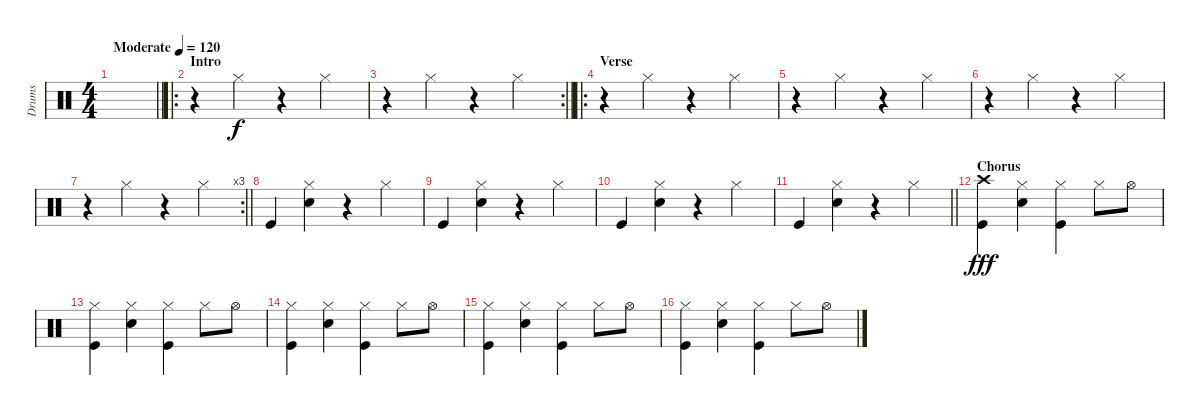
\track ("Drums" "Drums") {instrument percussion}
\staff {score}
\articulation defaults
\ts (4 4)
\tempo (120 "Moderate")
\clef neutral
\barLineRight lightlight
\ks c
|
\ro
\section ("" "Intro")
r.4 "Hi-Hat (closed)".4 r.4 "Hi-Hat (closed)".4 |
\rc 2
\barLineRight lightlight
r.4 "Hi-Hat (closed)".4 r.4 "Hi-Hat (closed)".4 |
\ro
\section ("" "Verse")
r.4 "Hi-Hat (closed)".4 r.4 "Hi-Hat (closed)".4 |
r.4 "Hi-Hat (closed)".4 r.4 "Hi-Hat (closed)".4 |
r.4 "Hi-Hat (closed)".4 r.4 "Hi-Hat (closed)".4 |
\rc 3
\barLineRight lightlight
r.4 "Hi-Hat (closed)".4 r.4 "Hi-Hat (closed)".4 |
"Kick (hit)".4 ("Hi-Hat (closed)" "Snare (hit) 2").4 r.4 "Hi-Hat (closed)".4 |
"Kick (hit)".4 ("Hi-Hat (closed)" "Snare (hit) 2").4 r.4 "Hi-Hat (closed)".4 |
"Kick (hit)".4 ("Hi-Hat (closed)" "Snare (hit) 2").4 r.4 "Hi-Hat (closed)".4 |
\barLineRight lightlight "Kick (hit)".4
("Hi-Hat (closed)" "Snare (hit) 2").4 r.4 "Hi-Hat (closed)".4 |
\section ("" "Chorus")
("Crash high (hit)" "Kick (hit)").4{dy fff} ("Hi-Hat (closed)" "Snare (hit) 2").4 ("Hi-Hat (closed)" "Kick (hit)").4 "Hi-Hat (closed)".8 "Hi-Hat (open)".8 |
("Hi-Hat (closed)" "Kick (hit)").4 ("Hi-Hat (closed)" "Snare (hit) 2").4 ("Hi-Hat (closed)" "Kick (hit)").4 "Hi-Hat (closed)".8 "Hi-Hat (open)".8 |
("Hi-Hat (closed)" "Kick (hit)").4 ("Hi-Hat (closed)" "Snare (hit) 2").4 ("Hi-Hat (closed)" "Kick (hit)").4 "Hi-Hat (closed)".8 "Hi-Hat (open)".8 |
("Hi-Hat (closed)" "Kick (hit)").4 ("Hi-Hat (closed)" "Snare (hit) 2").4 ("Hi-Hat (closed)" "Kick (hit)").4 "Hi-Hat (closed)".8 "Hi-Hat (open)".8 |
("Hi-Hat (closed)" "Kick (hit)").4 ("Hi-Hat (closed)" "Snare (hit) 2").4 ("Hi-Hat (closed)" "Kick (hit)").4 "Hi-Hat (closed)".8 "Hi-Hat (open)".8
